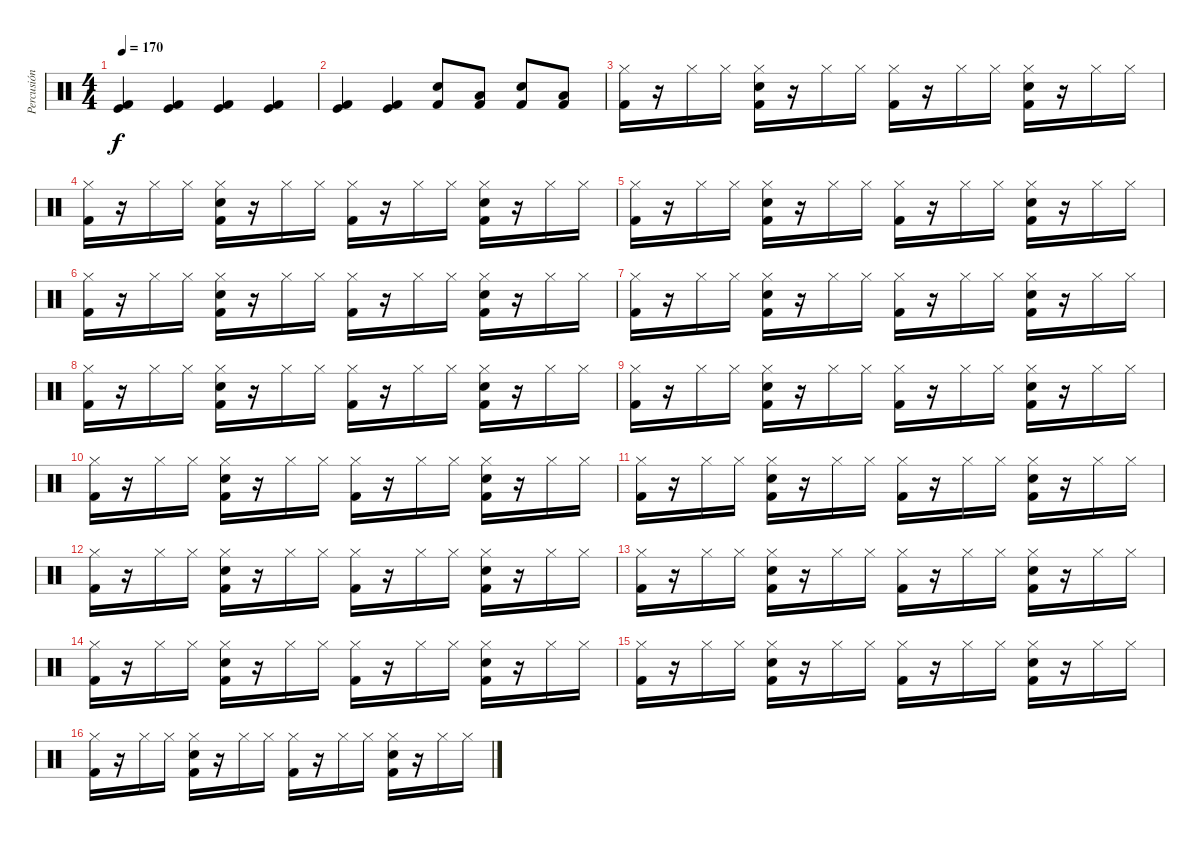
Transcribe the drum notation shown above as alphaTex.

\track ("Percusión" "Percusión") {instrument percussion}
\staff {score}
\articulation defaults
\ts (4 4)
\tempo 170
\clef neutral
\ks c
("Kick (hit)" "Kick (hit) 2").4{dy f} ("Kick (hit)" "Kick (hit) 2").4 ("Kick (hit)" "Kick (hit) 2").4 ("Kick (hit)" "Kick (hit) 2").4 |
("Kick (hit)" "Kick (hit) 2").4 ("Kick (hit)" "Kick (hit) 2").4 ("Snare (hit) 2" "Kick (hit) 2").8 ("Low Tom (hit)" "Kick (hit) 2").8 ("Snare (hit) 2" "Kick (hit) 2").8 ("Low Tom (hit)" "Kick (hit) 2").8 |
("Hi-Hat (closed)" "Kick (hit) 2").16 r.16 "Hi-Hat (closed)".16 "Hi-Hat (closed)".16 ("Snare (hit) 2" "Hi-Hat (closed)" "Kick (hit) 2").16 r.16 "Hi-Hat (closed)".16 "Hi-Hat (closed)".16 ("Hi-Hat (closed)" "Kick (hit) 2").16 r.16 "Hi-Hat (closed)".16 "Hi-Hat (closed)".16 ("Snare (hit) 2" "Hi-Hat (closed)" "Kick (hit) 2").16 r.16 "Hi-Hat (closed)".16 "Hi-Hat (closed)".16 |
("Hi-Hat (closed)" "Kick (hit) 2").16 r.16 "Hi-Hat (closed)".16 "Hi-Hat (closed)".16 ("Snare (hit) 2" "Hi-Hat (closed)" "Kick (hit) 2").16 r.16 "Hi-Hat (closed)".16 "Hi-Hat (closed)".16 ("Hi-Hat (closed)" "Kick (hit) 2").16 r.16 "Hi-Hat (closed)".16 "Hi-Hat (closed)".16 ("Snare (hit) 2" "Hi-Hat (closed)" "Kick (hit) 2").16 r.16 "Hi-Hat (closed)".16 "Hi-Hat (closed)".16 |
("Hi-Hat (closed)" "Kick (hit) 2").16 r.16 "Hi-Hat (closed)".16 "Hi-Hat (closed)".16 ("Snare (hit) 2" "Hi-Hat (closed)" "Kick (hit) 2").16 r.16 "Hi-Hat (closed)".16 "Hi-Hat (closed)".16 ("Hi-Hat (closed)" "Kick (hit) 2").16 r.16 "Hi-Hat (closed)".16 "Hi-Hat (closed)".16 ("Snare (hit) 2" "Hi-Hat (closed)" "Kick (hit) 2").16 r.16 "Hi-Hat (closed)".16 "Hi-Hat (closed)".16 |
("Hi-Hat (closed)" "Kick (hit) 2").16 r.16 "Hi-Hat (closed)".16 "Hi-Hat (closed)".16 ("Snare (hit) 2" "Hi-Hat (closed)" "Kick (hit) 2").16 r.16 "Hi-Hat (closed)".16 "Hi-Hat (closed)".16 ("Hi-Hat (closed)" "Kick (hit) 2").16 r.16 "Hi-Hat (closed)".16 "Hi-Hat (closed)".16 ("Snare (hit) 2" "Hi-Hat (closed)" "Kick (hit) 2").16 r.16 "Hi-Hat (closed)".16 "Hi-Hat (closed)".16 |
("Hi-Hat (closed)" "Kick (hit) 2").16 r.16 "Hi-Hat (closed)".16 "Hi-Hat (closed)".16 ("Snare (hit) 2" "Hi-Hat (closed)" "Kick (hit) 2").16 r.16 "Hi-Hat (closed)".16 "Hi-Hat (closed)".16 ("Hi-Hat (closed)" "Kick (hit) 2").16 r.16 "Hi-Hat (closed)".16 "Hi-Hat (closed)".16 ("Snare (hit) 2" "Hi-Hat (closed)" "Kick (hit) 2").16 r.16 "Hi-Hat (closed)".16 "Hi-Hat (closed)".16 |
("Hi-Hat (closed)" "Kick (hit) 2").16 r.16 "Hi-Hat (closed)".16 "Hi-Hat (closed)".16 ("Snare (hit) 2" "Hi-Hat (closed)" "Kick (hit) 2").16 r.16 "Hi-Hat (closed)".16 "Hi-Hat (closed)".16 ("Hi-Hat (closed)" "Kick (hit) 2").16 r.16 "Hi-Hat (closed)".16 "Hi-Hat (closed)".16 ("Snare (hit) 2" "Hi-Hat (closed)" "Kick (hit) 2").16 r.16 "Hi-Hat (closed)".16 "Hi-Hat (closed)".16 |
("Hi-Hat (closed)" "Kick (hit) 2").16 r.16 "Hi-Hat (closed)".16 "Hi-Hat (closed)".16 ("Snare (hit) 2" "Hi-Hat (closed)" "Kick (hit) 2").16 r.16 "Hi-Hat (closed)".16 "Hi-Hat (closed)".16 ("Hi-Hat (closed)" "Kick (hit) 2").16 r.16 "Hi-Hat (closed)".16 "Hi-Hat (closed)".16 ("Snare (hit) 2" "Hi-Hat (closed)" "Kick (hit) 2").16 r.16 "Hi-Hat (closed)".16 "Hi-Hat (closed)".16 |
("Hi-Hat (closed)" "Kick (hit) 2").16 r.16 "Hi-Hat (closed)".16 "Hi-Hat (closed)".16 ("Snare (hit) 2" "Hi-Hat (closed)" "Kick (hit) 2").16 r.16 "Hi-Hat (closed)".16 "Hi-Hat (closed)".16 ("Hi-Hat (closed)" "Kick (hit) 2").16 r.16 "Hi-Hat (closed)".16 "Hi-Hat (closed)".16 ("Snare (hit) 2" "Hi-Hat (closed)" "Kick (hit) 2").16 r.16 "Hi-Hat (closed)".16 "Hi-Hat (closed)".16 |
("Hi-Hat (closed)" "Kick (hit) 2").16 r.16 "Hi-Hat (closed)".16 "Hi-Hat (closed)".16 ("Snare (hit) 2" "Hi-Hat (closed)" "Kick (hit) 2").16 r.16 "Hi-Hat (closed)".16 "Hi-Hat (closed)".16 ("Hi-Hat (closed)" "Kick (hit) 2").16 r.16 "Hi-Hat (closed)".16 "Hi-Hat (closed)".16 ("Snare (hit) 2" "Hi-Hat (closed)" "Kick (hit) 2").16 r.16 "Hi-Hat (closed)".16 "Hi-Hat (closed)".16 |
("Hi-Hat (closed)" "Kick (hit) 2").16 r.16 "Hi-Hat (closed)".16 "Hi-Hat (closed)".16 ("Snare (hit) 2" "Hi-Hat (closed)" "Kick (hit) 2").16 r.16 "Hi-Hat (closed)".16 "Hi-Hat (closed)".16 ("Hi-Hat (closed)" "Kick (hit) 2").16 r.16 "Hi-Hat (closed)".16 "Hi-Hat (closed)".16 ("Snare (hit) 2" "Hi-Hat (closed)" "Kick (hit) 2").16 r.16 "Hi-Hat (closed)".16 "Hi-Hat (closed)".16 |
("Hi-Hat (closed)" "Kick (hit) 2").16 r.16 "Hi-Hat (closed)".16 "Hi-Hat (closed)".16 ("Snare (hit) 2" "Hi-Hat (closed)" "Kick (hit) 2").16 r.16 "Hi-Hat (closed)".16 "Hi-Hat (closed)".16 ("Hi-Hat (closed)" "Kick (hit) 2").16 r.16 "Hi-Hat (closed)".16 "Hi-Hat (closed)".16 ("Snare (hit) 2" "Hi-Hat (closed)" "Kick (hit) 2").16 r.16 "Hi-Hat (closed)".16 "Hi-Hat (closed)".16 |
("Hi-Hat (closed)" "Kick (hit) 2").16 r.16 "Hi-Hat (closed)".16 "Hi-Hat (closed)".16 ("Snare (hit) 2" "Hi-Hat (closed)" "Kick (hit) 2").16 r.16 "Hi-Hat (closed)".16 "Hi-Hat (closed)".16 ("Hi-Hat (closed)" "Kick (hit) 2").16 r.16 "Hi-Hat (closed)".16 "Hi-Hat (closed)".16 ("Snare (hit) 2" "Hi-Hat (closed)" "Kick (hit) 2").16 r.16 "Hi-Hat (closed)".16 "Hi-Hat (closed)".16 |
("Hi-Hat (closed)" "Kick (hit) 2").16 r.16 "Hi-Hat (closed)".16 "Hi-Hat (closed)".16 ("Snare (hit) 2" "Hi-Hat (closed)" "Kick (hit) 2").16 r.16 "Hi-Hat (closed)".16 "Hi-Hat (closed)".16 ("Hi-Hat (closed)" "Kick (hit) 2").16 r.16 "Hi-Hat (closed)".16 "Hi-Hat (closed)".16 ("Snare (hit) 2" "Hi-Hat (closed)" "Kick (hit) 2").16 r.16 "Hi-Hat (closed)".16 "Hi-Hat (closed)".16 |
("Hi-Hat (closed)" "Kick (hit) 2").16 r.16 "Hi-Hat (closed)".16 "Hi-Hat (closed)".16 ("Snare (hit) 2" "Hi-Hat (closed)" "Kick (hit) 2").16 r.16 "Hi-Hat (closed)".16 "Hi-Hat (closed)".16 ("Hi-Hat (closed)" "Kick (hit) 2").16 r.16 "Hi-Hat (closed)".16 "Hi-Hat (closed)".16 ("Snare (hit) 2" "Hi-Hat (closed)" "Kick (hit) 2").16 r.16 "Hi-Hat (closed)".16 "Hi-Hat (closed)".16
